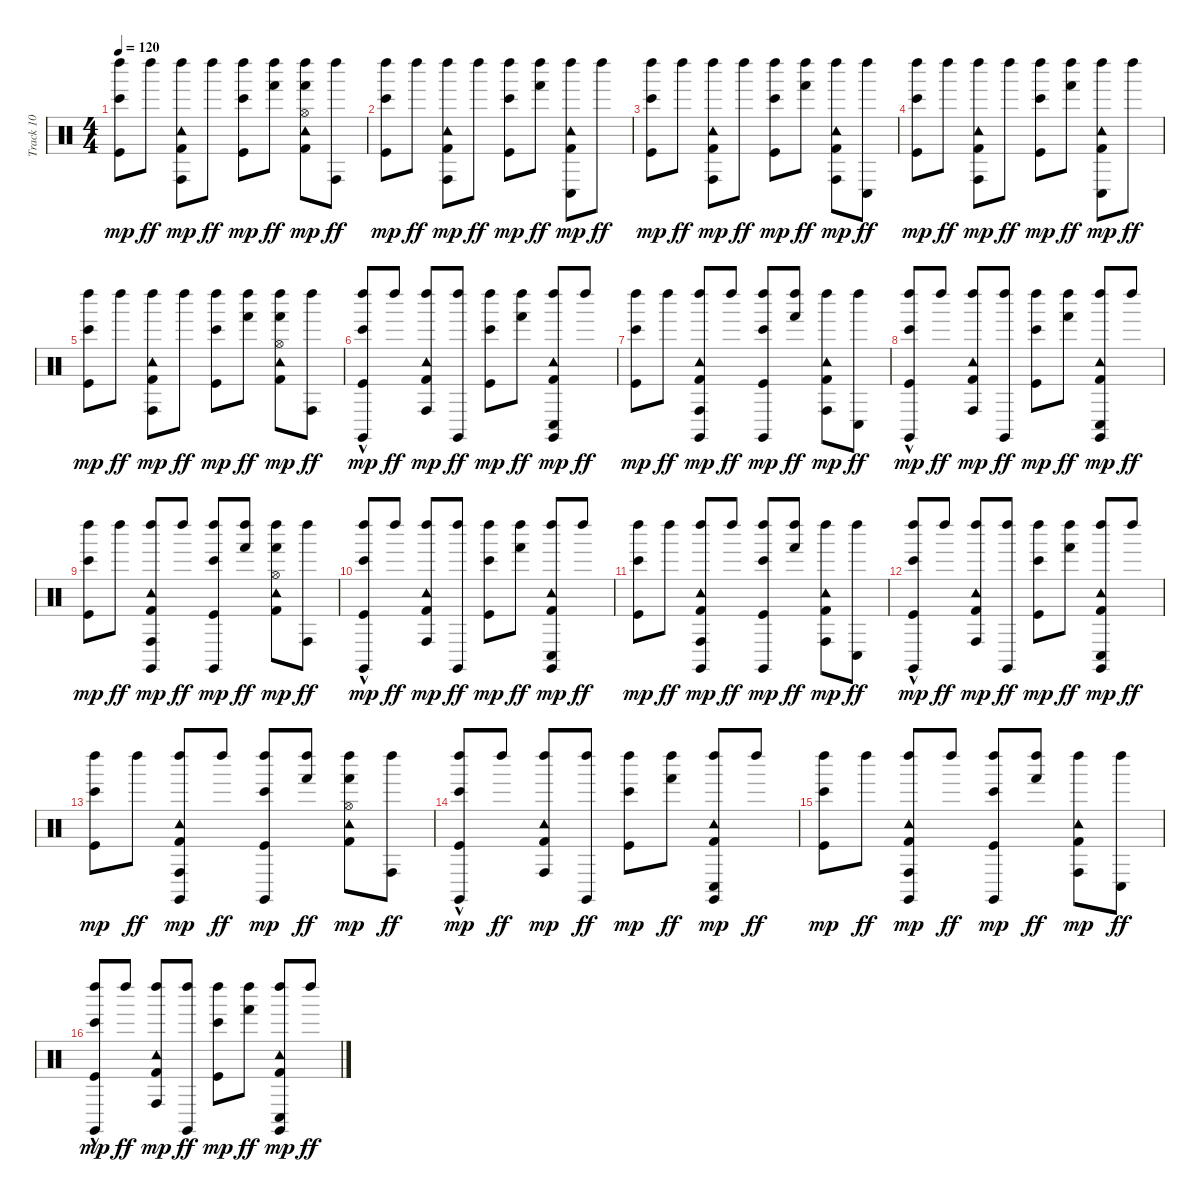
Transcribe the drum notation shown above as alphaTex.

\track ("Track 10" "Track 10") {instrument percussion}
\staff {score}
\articulation defaults
\ts (4 4)
\tempo 120
\clef neutral
\ks c
("Bongo High (hit)" "Left Maraca (hit)" "Kick (hit)").8{dy mp} "Left Maraca (hit)".8{dy ff} ("Conga high (hit)" "Tambourine (hit)" "Left Maraca (hit)" "Kick (hit) 2").8{dy mp} "Left Maraca (hit)".8{dy ff} ("Bongo High (hit)" "Left Maraca (hit)" "Kick (hit)").8{dy mp} ("Hand (hit)" "Left Maraca (hit)").8{dy ff} ("Hand (hit)" "Hi-Hat (open)" "Tambourine (hit)" "Left Maraca (hit)" "Kick (hit) 2").8{dy mp} ("Conga high (hit)" "Left Maraca (hit)").8{dy ff} |
("Bongo High (hit)" "Left Maraca (hit)" "Kick (hit)").8{dy mp} "Left Maraca (hit)".8{dy ff} ("Conga high (hit)" "Tambourine (hit)" "Left Maraca (hit)" "Kick (hit) 2").8{dy mp} "Left Maraca (hit)".8{dy ff} ("Bongo High (hit)" "Left Maraca (hit)" "Kick (hit)").8{dy mp} ("Hand (hit)" "Left Maraca (hit)").8{dy ff} ("Conga low (hit)" "Tambourine (hit)" "Left Maraca (hit)" "Kick (hit) 2").8{dy mp} "Left Maraca (hit)".8{dy ff} |
("Bongo High (hit)" "Left Maraca (hit)" "Kick (hit)").8{dy mp} "Left Maraca (hit)".8{dy ff} ("Conga high (hit)" "Tambourine (hit)" "Left Maraca (hit)" "Kick (hit) 2").8{dy mp} "Left Maraca (hit)".8{dy ff} ("Bongo High (hit)" "Left Maraca (hit)" "Kick (hit)").8{dy mp} ("Hand (hit)" "Left Maraca (hit)").8{dy ff} ("Conga high (hit)" "Tambourine (hit)" "Left Maraca (hit)" "Kick (hit) 2").8{dy mp} ("Conga low (hit)" "Left Maraca (hit)").8{dy ff} |
("Bongo High (hit)" "Left Maraca (hit)" "Kick (hit)").8{dy mp} "Left Maraca (hit)".8{dy ff} ("Conga high (hit)" "Tambourine (hit)" "Left Maraca (hit)" "Kick (hit) 2").8{dy mp} "Left Maraca (hit)".8{dy ff} ("Bongo High (hit)" "Left Maraca (hit)" "Kick (hit)").8{dy mp} ("Hand (hit)" "Left Maraca (hit)").8{dy ff} ("Conga low (hit)" "Tambourine (hit)" "Left Maraca (hit)" "Kick (hit) 2").8{dy mp} "Left Maraca (hit)".8{dy ff} |
("Bongo High (hit)" "Left Maraca (hit)" "Kick (hit)").8{dy mp} "Left Maraca (hit)".8{dy ff} ("Conga high (hit)" "Tambourine (hit)" "Left Maraca (hit)" "Kick (hit) 2").8{dy mp} "Left Maraca (hit)".8{dy ff} ("Bongo High (hit)" "Left Maraca (hit)" "Kick (hit)").8{dy mp} ("Hand (hit)" "Left Maraca (hit)").8{dy ff} ("Hand (hit)" "Hi-Hat (open)" "Tambourine (hit)" "Left Maraca (hit)" "Kick (hit) 2").8{dy mp} ("Conga high (hit)" "Left Maraca (hit)").8{dy ff} |
("Bongo High (hit)" "Left Maraca (hit)" "Kick (hit)" "Claves (hit)"{hac}).8{dy mp} "Left Maraca (hit)".8{dy ff} ("Conga high (hit)" "Tambourine (hit)" "Left Maraca (hit)" "Kick (hit) 2").8{dy mp} ("Left Maraca (hit)" "Claves (hit)").8{dy ff} ("Bongo High (hit)" "Left Maraca (hit)" "Kick (hit)").8{dy mp} ("Hand (hit)" "Left Maraca (hit)").8{dy ff} ("Conga low (hit)" "Tambourine (hit)" "Left Maraca (hit)" "Kick (hit) 2" "Claves (hit)").8{dy mp} "Left Maraca (hit)".8{dy ff} |
("Bongo High (hit)" "Left Maraca (hit)" "Kick (hit)").8{dy mp} "Left Maraca (hit)".8{dy ff} ("Conga high (hit)" "Tambourine (hit)" "Left Maraca (hit)" "Kick (hit) 2" "Claves (hit)").8{dy mp} "Left Maraca (hit)".8{dy ff} ("Bongo High (hit)" "Left Maraca (hit)" "Kick (hit)" "Claves (hit)").8{dy mp} ("Hand (hit)" "Left Maraca (hit)").8{dy ff} ("Conga high (hit)" "Tambourine (hit)" "Left Maraca (hit)" "Kick (hit) 2").8{dy mp} ("Conga low (hit)" "Left Maraca (hit)").8{dy ff} |
("Bongo High (hit)" "Left Maraca (hit)" "Kick (hit)" "Claves (hit)"{hac}).8{dy mp} "Left Maraca (hit)".8{dy ff} ("Conga high (hit)" "Tambourine (hit)" "Left Maraca (hit)" "Kick (hit) 2").8{dy mp} ("Left Maraca (hit)" "Claves (hit)").8{dy ff} ("Bongo High (hit)" "Left Maraca (hit)" "Kick (hit)").8{dy mp} ("Hand (hit)" "Left Maraca (hit)").8{dy ff} ("Conga low (hit)" "Tambourine (hit)" "Left Maraca (hit)" "Kick (hit) 2" "Claves (hit)").8{dy mp} "Left Maraca (hit)".8{dy ff} |
("Bongo High (hit)" "Left Maraca (hit)" "Kick (hit)").8{dy mp} "Left Maraca (hit)".8{dy ff} ("Conga high (hit)" "Tambourine (hit)" "Left Maraca (hit)" "Kick (hit) 2" "Claves (hit)").8{dy mp} "Left Maraca (hit)".8{dy ff} ("Bongo High (hit)" "Left Maraca (hit)" "Kick (hit)" "Claves (hit)").8{dy mp} ("Hand (hit)" "Left Maraca (hit)").8{dy ff} ("Hand (hit)" "Hi-Hat (open)" "Tambourine (hit)" "Left Maraca (hit)" "Kick (hit) 2").8{dy mp} ("Conga high (hit)" "Left Maraca (hit)").8{dy ff} |
("Bongo High (hit)" "Left Maraca (hit)" "Kick (hit)" "Claves (hit)"{hac}).8{dy mp} "Left Maraca (hit)".8{dy ff} ("Conga high (hit)" "Tambourine (hit)" "Left Maraca (hit)" "Kick (hit) 2").8{dy mp} ("Left Maraca (hit)" "Claves (hit)").8{dy ff} ("Bongo High (hit)" "Left Maraca (hit)" "Kick (hit)").8{dy mp} ("Hand (hit)" "Left Maraca (hit)").8{dy ff} ("Conga low (hit)" "Tambourine (hit)" "Left Maraca (hit)" "Kick (hit) 2" "Claves (hit)").8{dy mp} "Left Maraca (hit)".8{dy ff} |
("Bongo High (hit)" "Left Maraca (hit)" "Kick (hit)").8{dy mp} "Left Maraca (hit)".8{dy ff} ("Conga high (hit)" "Tambourine (hit)" "Left Maraca (hit)" "Kick (hit) 2" "Claves (hit)").8{dy mp} "Left Maraca (hit)".8{dy ff} ("Bongo High (hit)" "Left Maraca (hit)" "Kick (hit)" "Claves (hit)").8{dy mp} ("Hand (hit)" "Left Maraca (hit)").8{dy ff} ("Conga high (hit)" "Tambourine (hit)" "Left Maraca (hit)" "Kick (hit) 2").8{dy mp} ("Conga low (hit)" "Left Maraca (hit)").8{dy ff} |
("Bongo High (hit)" "Left Maraca (hit)" "Kick (hit)" "Claves (hit)"{hac}).8{dy mp} "Left Maraca (hit)".8{dy ff} ("Conga high (hit)" "Tambourine (hit)" "Left Maraca (hit)" "Kick (hit) 2").8{dy mp} ("Left Maraca (hit)" "Claves (hit)").8{dy ff} ("Bongo High (hit)" "Left Maraca (hit)" "Kick (hit)").8{dy mp} ("Hand (hit)" "Left Maraca (hit)").8{dy ff} ("Conga low (hit)" "Tambourine (hit)" "Left Maraca (hit)" "Kick (hit) 2" "Claves (hit)").8{dy mp} "Left Maraca (hit)".8{dy ff} |
("Bongo High (hit)" "Left Maraca (hit)" "Kick (hit)").8{dy mp} "Left Maraca (hit)".8{dy ff} ("Conga high (hit)" "Tambourine (hit)" "Left Maraca (hit)" "Kick (hit) 2" "Claves (hit)").8{dy mp} "Left Maraca (hit)".8{dy ff} ("Bongo High (hit)" "Left Maraca (hit)" "Kick (hit)" "Claves (hit)").8{dy mp} ("Hand (hit)" "Left Maraca (hit)").8{dy ff} ("Hand (hit)" "Hi-Hat (open)" "Tambourine (hit)" "Left Maraca (hit)" "Kick (hit) 2").8{dy mp} ("Conga high (hit)" "Left Maraca (hit)").8{dy ff} |
("Bongo High (hit)" "Left Maraca (hit)" "Kick (hit)" "Claves (hit)"{hac}).8{dy mp} "Left Maraca (hit)".8{dy ff} ("Conga high (hit)" "Tambourine (hit)" "Left Maraca (hit)" "Kick (hit) 2").8{dy mp} ("Left Maraca (hit)" "Claves (hit)").8{dy ff} ("Bongo High (hit)" "Left Maraca (hit)" "Kick (hit)").8{dy mp} ("Hand (hit)" "Left Maraca (hit)").8{dy ff} ("Conga low (hit)" "Tambourine (hit)" "Left Maraca (hit)" "Kick (hit) 2" "Claves (hit)").8{dy mp} "Left Maraca (hit)".8{dy ff} |
("Bongo High (hit)" "Left Maraca (hit)" "Kick (hit)").8{dy mp} "Left Maraca (hit)".8{dy ff} ("Conga high (hit)" "Tambourine (hit)" "Left Maraca (hit)" "Kick (hit) 2" "Claves (hit)").8{dy mp} "Left Maraca (hit)".8{dy ff} ("Bongo High (hit)" "Left Maraca (hit)" "Kick (hit)" "Claves (hit)").8{dy mp} ("Hand (hit)" "Left Maraca (hit)").8{dy ff} ("Conga high (hit)" "Tambourine (hit)" "Left Maraca (hit)" "Kick (hit) 2").8{dy mp} ("Conga low (hit)" "Left Maraca (hit)").8{dy ff} |
("Bongo High (hit)" "Left Maraca (hit)" "Kick (hit)" "Claves (hit)"{hac}).8{dy mp} "Left Maraca (hit)".8{dy ff} ("Conga high (hit)" "Tambourine (hit)" "Left Maraca (hit)" "Kick (hit) 2").8{dy mp} ("Left Maraca (hit)" "Claves (hit)").8{dy ff} ("Bongo High (hit)" "Left Maraca (hit)" "Kick (hit)").8{dy mp} ("Hand (hit)" "Left Maraca (hit)").8{dy ff} ("Conga low (hit)" "Tambourine (hit)" "Left Maraca (hit)" "Kick (hit) 2" "Claves (hit)").8{dy mp} "Left Maraca (hit)".8{dy ff}
